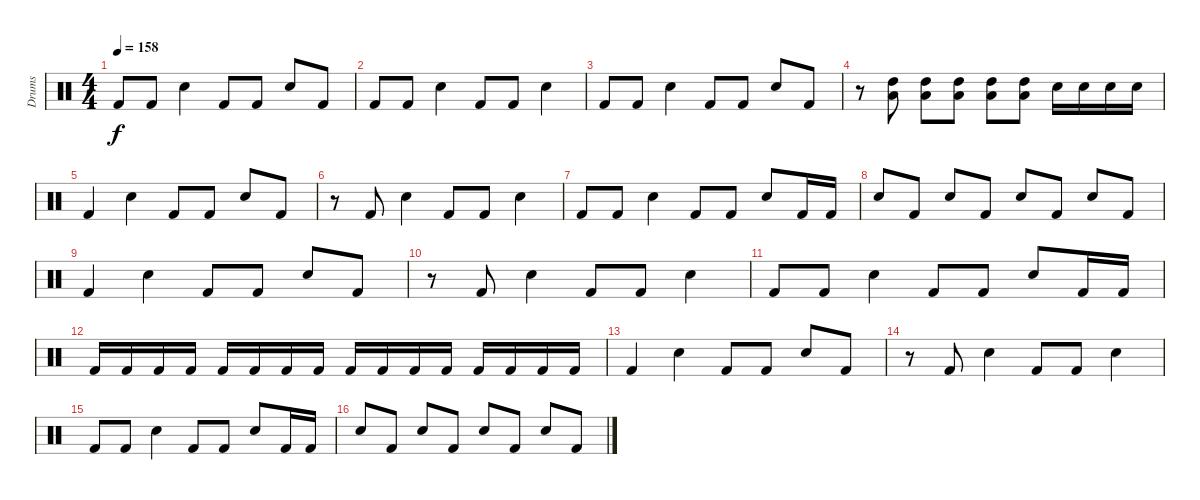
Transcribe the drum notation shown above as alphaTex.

\track ("Drums" "Drums") {instrument percussion}
\staff {score}
\articulation defaults
\ts (4 4)
\tempo 158
\clef neutral
\ks c "Kick (hit) 2".8{dy f} "Kick (hit) 2".8 "Snare (hit) 2".4 "Kick (hit) 2".8 "Kick (hit) 2".8 "Snare (hit) 2".8 "Kick (hit) 2".8
|
"Kick (hit) 2".8 "Kick (hit) 2".8 "Snare (hit) 2".4 "Kick (hit) 2".8 "Kick (hit) 2".8 "Snare (hit) 2".4 |
"Kick (hit) 2".8 "Kick (hit) 2".8 "Snare (hit) 2".4 "Kick (hit) 2".8 "Kick (hit) 2".8 "Snare (hit) 2".8 "Kick (hit) 2".8 |
r.8 ("High Tom (hit)" "Low Tom (hit)").8 ("Low Tom (hit)" "High Tom (hit)").8 ("Low Tom (hit)" "High Tom (hit)").8 ("Low Tom (hit)" "High Tom (hit)").8 ("Low Tom (hit)" "High Tom (hit)").8 "Snare (hit) 2".16 "Snare (hit) 2".16 "Snare (hit) 2".16 "Snare (hit) 2".16 |
"Kick (hit) 2".4 "Snare (hit) 2".4 "Kick (hit) 2".8 "Kick (hit) 2".8 "Snare (hit) 2".8 "Kick (hit) 2".8 |
r.8 "Kick (hit) 2".8 "Snare (hit) 2".4 "Kick (hit) 2".8 "Kick (hit) 2".8 "Snare (hit) 2".4 |
"Kick (hit) 2".8 "Kick (hit) 2".8 "Snare (hit) 2".4 "Kick (hit) 2".8 "Kick (hit) 2".8 "Snare (hit) 2".8 "Kick (hit) 2".16 "Kick (hit) 2".16 |
"Snare (hit) 2".8 "Kick (hit) 2".8 "Snare (hit) 2".8 "Kick (hit) 2".8 "Snare (hit) 2".8 "Kick (hit) 2".8 "Snare (hit) 2".8 "Kick (hit) 2".8 |
"Kick (hit) 2".4 "Snare (hit) 2".4 "Kick (hit) 2".8 "Kick (hit) 2".8 "Snare (hit) 2".8 "Kick (hit) 2".8 |
r.8 "Kick (hit) 2".8 "Snare (hit) 2".4 "Kick (hit) 2".8 "Kick (hit) 2".8 "Snare (hit) 2".4 |
"Kick (hit) 2".8 "Kick (hit) 2".8 "Snare (hit) 2".4 "Kick (hit) 2".8 "Kick (hit) 2".8 "Snare (hit) 2".8 "Kick (hit) 2".16 "Kick (hit) 2".16 |
"Kick (hit) 2".16 "Kick (hit) 2".16 "Kick (hit) 2".16 "Kick (hit) 2".16 "Kick (hit) 2".16 "Kick (hit) 2".16 "Kick (hit) 2".16 "Kick (hit) 2".16 "Kick (hit) 2".16 "Kick (hit) 2".16 "Kick (hit) 2".16 "Kick (hit) 2".16 "Kick (hit) 2".16 "Kick (hit) 2".16 "Kick (hit) 2".16 "Kick (hit) 2".16 |
"Kick (hit) 2".4 "Snare (hit) 2".4 "Kick (hit) 2".8 "Kick (hit) 2".8 "Snare (hit) 2".8 "Kick (hit) 2".8 |
r.8 "Kick (hit) 2".8 "Snare (hit) 2".4 "Kick (hit) 2".8 "Kick (hit) 2".8 "Snare (hit) 2".4 |
"Kick (hit) 2".8 "Kick (hit) 2".8 "Snare (hit) 2".4 "Kick (hit) 2".8 "Kick (hit) 2".8 "Snare (hit) 2".8 "Kick (hit) 2".16 "Kick (hit) 2".16 |
"Snare (hit) 2".8 "Kick (hit) 2".8 "Snare (hit) 2".8 "Kick (hit) 2".8 "Snare (hit) 2".8 "Kick (hit) 2".8 "Snare (hit) 2".8 "Kick (hit) 2".8
